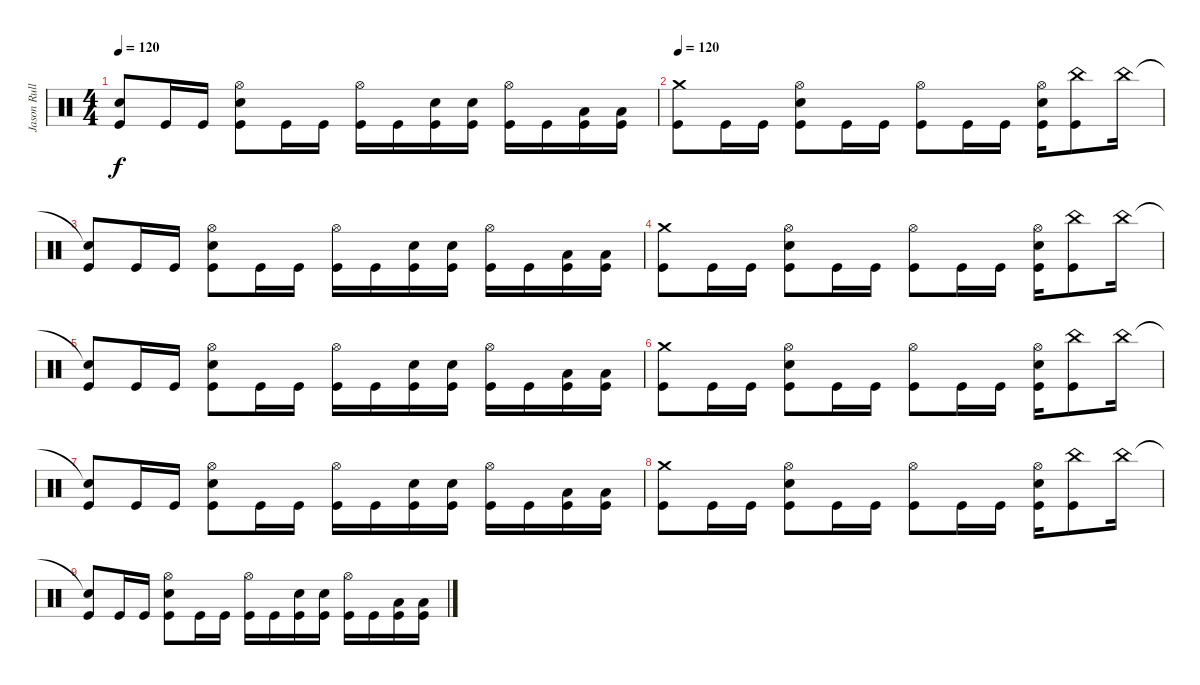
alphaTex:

\track ("Jason Rullo - BATTERIE" "Jason Rull") {instrument percussion}
\staff {score}
\articulation defaults
\ts (4 4)
\tempo 120
\clef neutral
\ks c
("Snare (hit)"{t} "Kick (hit)").8{dy f} "Kick (hit)".16 "Kick (hit)".16 ("Hi-Hat (open)" "Snare (hit) 2" "Kick (hit)").8 "Kick (hit)".16 "Kick (hit)".16 ("Hi-Hat (open)" "Kick (hit)").16 "Kick (hit)".16 ("Snare (hit) 2" "Kick (hit)").16 ("Snare (hit) 2" "Kick (hit)").16 ("Hi-Hat (open)" "Kick (hit)").16 "Kick (hit)".16 ("Low Tom (hit)" "Kick (hit)").16 ("Low Tom (hit)" "Kick (hit)").16 |
\tempo 120
("Crash medium (hit)" "Kick (hit)").8 "Kick (hit)".16 "Kick (hit)".16 ("Hi-Hat (open)" "Snare (hit) 2" "Kick (hit)").8 "Kick (hit)".16 "Kick (hit)".16 ("Hi-Hat (open)" "Kick (hit)").8 "Kick (hit)".16 "Kick (hit)".16 ("Hi-Hat (open)" "Snare (hit) 2" "Kick (hit)").16 ("China (hit)" "Kick (hit)").8 "China (hit)".16 |
("Snare (hit)"{t} "Kick (hit)").8 "Kick (hit)".16 "Kick (hit)".16 ("Hi-Hat (open)" "Snare (hit) 2" "Kick (hit)").8 "Kick (hit)".16 "Kick (hit)".16 ("Hi-Hat (open)" "Kick (hit)").16 "Kick (hit)".16 ("Snare (hit) 2" "Kick (hit)").16 ("Snare (hit) 2" "Kick (hit)").16 ("Hi-Hat (open)" "Kick (hit)").16 "Kick (hit)".16 ("Low Tom (hit)" "Kick (hit)").16 ("Low Tom (hit)" "Kick (hit)").16 |
("Crash medium (hit)" "Kick (hit)").8 "Kick (hit)".16 "Kick (hit)".16 ("Hi-Hat (open)" "Snare (hit) 2" "Kick (hit)").8 "Kick (hit)".16 "Kick (hit)".16 ("Hi-Hat (open)" "Kick (hit)").8 "Kick (hit)".16 "Kick (hit)".16 ("Hi-Hat (open)" "Snare (hit) 2" "Kick (hit)").16 ("China (hit)" "Kick (hit)").8 "China (hit)".16 |
("Snare (hit)"{t} "Kick (hit)").8 "Kick (hit)".16 "Kick (hit)".16 ("Hi-Hat (open)" "Snare (hit) 2" "Kick (hit)").8 "Kick (hit)".16 "Kick (hit)".16 ("Hi-Hat (open)" "Kick (hit)").16 "Kick (hit)".16 ("Snare (hit) 2" "Kick (hit)").16 ("Snare (hit) 2" "Kick (hit)").16 ("Hi-Hat (open)" "Kick (hit)").16 "Kick (hit)".16 ("Low Tom (hit)" "Kick (hit)").16 ("Low Tom (hit)" "Kick (hit)").16 |
("Crash medium (hit)" "Kick (hit)").8 "Kick (hit)".16 "Kick (hit)".16 ("Hi-Hat (open)" "Snare (hit) 2" "Kick (hit)").8 "Kick (hit)".16 "Kick (hit)".16 ("Hi-Hat (open)" "Kick (hit)").8 "Kick (hit)".16 "Kick (hit)".16 ("Hi-Hat (open)" "Snare (hit) 2" "Kick (hit)").16 ("China (hit)" "Kick (hit)").8 "China (hit)".16 |
("Snare (hit)"{t} "Kick (hit)").8 "Kick (hit)".16 "Kick (hit)".16 ("Hi-Hat (open)" "Snare (hit) 2" "Kick (hit)").8 "Kick (hit)".16 "Kick (hit)".16 ("Hi-Hat (open)" "Kick (hit)").16 "Kick (hit)".16 ("Snare (hit) 2" "Kick (hit)").16 ("Snare (hit) 2" "Kick (hit)").16 ("Hi-Hat (open)" "Kick (hit)").16 "Kick (hit)".16 ("Low Tom (hit)" "Kick (hit)").16 ("Low Tom (hit)" "Kick (hit)").16 |
("Crash medium (hit)" "Kick (hit)").8 "Kick (hit)".16 "Kick (hit)".16 ("Hi-Hat (open)" "Snare (hit) 2" "Kick (hit)").8 "Kick (hit)".16 "Kick (hit)".16 ("Hi-Hat (open)" "Kick (hit)").8 "Kick (hit)".16 "Kick (hit)".16 ("Hi-Hat (open)" "Snare (hit) 2" "Kick (hit)").16 ("China (hit)" "Kick (hit)").8 "China (hit)".16 |
("Snare (hit)"{t} "Kick (hit)").8 "Kick (hit)".16 "Kick (hit)".16 ("Hi-Hat (open)" "Snare (hit) 2" "Kick (hit)").8 "Kick (hit)".16 "Kick (hit)".16 ("Hi-Hat (open)" "Kick (hit)").16 "Kick (hit)".16 ("Snare (hit) 2" "Kick (hit)").16 ("Snare (hit) 2" "Kick (hit)").16 ("Hi-Hat (open)" "Kick (hit)").16 "Kick (hit)".16 ("Low Tom (hit)" "Kick (hit)").16 ("Low Tom (hit)" "Kick (hit)").16
